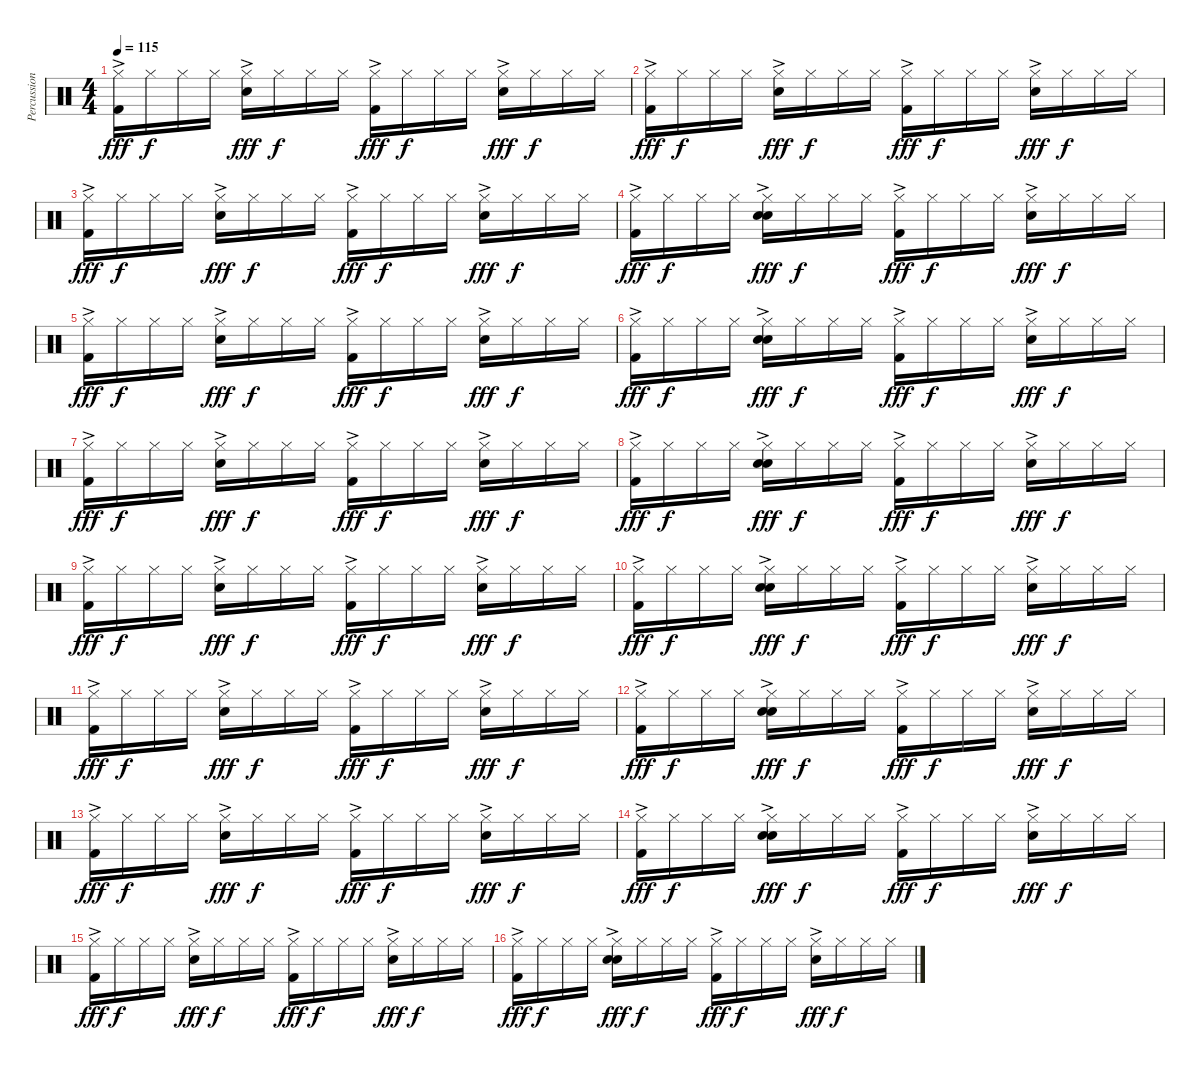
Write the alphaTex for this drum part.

\track ("Percussion" "Percussion") {instrument percussion}
\staff {score}
\articulation defaults
\ts (4 4)
\tempo 115
\clef neutral
\ks c
("Hi-Hat (closed)"{ac} "Kick (hit) 2").16{dy fff} "Hi-Hat (closed)".16{dy f} "Hi-Hat (closed)".16 "Hi-Hat (closed)".16 ("Hi-Hat (closed)"{ac} "Snare (hit) 2").16{dy fff} "Hi-Hat (closed)".16{dy f} "Hi-Hat (closed)".16 "Hi-Hat (closed)".16 ("Hi-Hat (closed)"{ac} "Kick (hit) 2").16{dy fff} "Hi-Hat (closed)".16{dy f} "Hi-Hat (closed)".16 "Hi-Hat (closed)".16 ("Hi-Hat (closed)"{ac} "Snare (hit) 2").16{dy fff} "Hi-Hat (closed)".16{dy f} "Hi-Hat (closed)".16 "Hi-Hat (closed)".16 |
("Hi-Hat (closed)"{ac} "Kick (hit) 2").16{dy fff} "Hi-Hat (closed)".16{dy f} "Hi-Hat (closed)".16 "Hi-Hat (closed)".16 ("Hi-Hat (closed)"{ac} "Snare (hit) 2").16{dy fff} "Hi-Hat (closed)".16{dy f} "Hi-Hat (closed)".16 "Hi-Hat (closed)".16 ("Hi-Hat (closed)"{ac} "Kick (hit) 2").16{dy fff} "Hi-Hat (closed)".16{dy f} "Hi-Hat (closed)".16 "Hi-Hat (closed)".16 ("Hi-Hat (closed)"{ac} "Snare (hit) 2").16{dy fff} "Hi-Hat (closed)".16{dy f} "Hi-Hat (closed)".16 "Hi-Hat (closed)".16 |
("Hi-Hat (closed)"{ac} "Kick (hit) 2").16{dy fff} "Hi-Hat (closed)".16{dy f} "Hi-Hat (closed)".16 "Hi-Hat (closed)".16 ("Hi-Hat (closed)"{ac} "Snare (hit) 2").16{dy fff} "Hi-Hat (closed)".16{dy f} "Hi-Hat (closed)".16 "Hi-Hat (closed)".16 ("Hi-Hat (closed)"{ac} "Kick (hit) 2").16{dy fff} "Hi-Hat (closed)".16{dy f} "Hi-Hat (closed)".16 "Hi-Hat (closed)".16 ("Hi-Hat (closed)"{ac} "Snare (hit) 2").16{dy fff} "Hi-Hat (closed)".16{dy f} "Hi-Hat (closed)".16 "Hi-Hat (closed)".16 |
("Hi-Hat (closed)"{ac} "Kick (hit) 2").16{dy fff} "Hi-Hat (closed)".16{dy f} "Hi-Hat (closed)".16 "Hi-Hat (closed)".16 ("Hi-Hat (closed)"{ac} "Snare (hit) 2" "Hand Clap (hit)").16{dy fff} "Hi-Hat (closed)".16{dy f} "Hi-Hat (closed)".16 "Hi-Hat (closed)".16 ("Hi-Hat (closed)"{ac} "Kick (hit) 2").16{dy fff} "Hi-Hat (closed)".16{dy f} "Hi-Hat (closed)".16 "Hi-Hat (closed)".16 ("Hi-Hat (closed)"{ac} "Snare (hit) 2").16{dy fff} "Hi-Hat (closed)".16{dy f} "Hi-Hat (closed)".16 "Hi-Hat (closed)".16 |
("Hi-Hat (closed)"{ac} "Kick (hit) 2").16{dy fff} "Hi-Hat (closed)".16{dy f} "Hi-Hat (closed)".16 "Hi-Hat (closed)".16 ("Hi-Hat (closed)"{ac} "Snare (hit) 2").16{dy fff} "Hi-Hat (closed)".16{dy f} "Hi-Hat (closed)".16 "Hi-Hat (closed)".16 ("Hi-Hat (closed)"{ac} "Kick (hit) 2").16{dy fff} "Hi-Hat (closed)".16{dy f} "Hi-Hat (closed)".16 "Hi-Hat (closed)".16 ("Hi-Hat (closed)"{ac} "Snare (hit) 2").16{dy fff} "Hi-Hat (closed)".16{dy f} "Hi-Hat (closed)".16 "Hi-Hat (closed)".16 |
("Hi-Hat (closed)"{ac} "Kick (hit) 2").16{dy fff} "Hi-Hat (closed)".16{dy f} "Hi-Hat (closed)".16 "Hi-Hat (closed)".16 ("Hi-Hat (closed)"{ac} "Snare (hit) 2" "Hand Clap (hit)").16{dy fff} "Hi-Hat (closed)".16{dy f} "Hi-Hat (closed)".16 "Hi-Hat (closed)".16 ("Hi-Hat (closed)"{ac} "Kick (hit) 2").16{dy fff} "Hi-Hat (closed)".16{dy f} "Hi-Hat (closed)".16 "Hi-Hat (closed)".16 ("Hi-Hat (closed)"{ac} "Snare (hit) 2").16{dy fff} "Hi-Hat (closed)".16{dy f} "Hi-Hat (closed)".16 "Hi-Hat (closed)".16 |
("Hi-Hat (closed)"{ac} "Kick (hit) 2").16{dy fff} "Hi-Hat (closed)".16{dy f} "Hi-Hat (closed)".16 "Hi-Hat (closed)".16 ("Hi-Hat (closed)"{ac} "Snare (hit) 2").16{dy fff} "Hi-Hat (closed)".16{dy f} "Hi-Hat (closed)".16 "Hi-Hat (closed)".16 ("Hi-Hat (closed)"{ac} "Kick (hit) 2").16{dy fff} "Hi-Hat (closed)".16{dy f} "Hi-Hat (closed)".16 "Hi-Hat (closed)".16 ("Hi-Hat (closed)"{ac} "Snare (hit) 2").16{dy fff} "Hi-Hat (closed)".16{dy f} "Hi-Hat (closed)".16 "Hi-Hat (closed)".16 |
("Hi-Hat (closed)"{ac} "Kick (hit) 2").16{dy fff} "Hi-Hat (closed)".16{dy f} "Hi-Hat (closed)".16 "Hi-Hat (closed)".16 ("Hi-Hat (closed)"{ac} "Snare (hit) 2" "Hand Clap (hit)").16{dy fff} "Hi-Hat (closed)".16{dy f} "Hi-Hat (closed)".16 "Hi-Hat (closed)".16 ("Hi-Hat (closed)"{ac} "Kick (hit) 2").16{dy fff} "Hi-Hat (closed)".16{dy f} "Hi-Hat (closed)".16 "Hi-Hat (closed)".16 ("Hi-Hat (closed)"{ac} "Snare (hit) 2").16{dy fff} "Hi-Hat (closed)".16{dy f} "Hi-Hat (closed)".16 "Hi-Hat (closed)".16 |
("Hi-Hat (closed)"{ac} "Kick (hit) 2").16{dy fff} "Hi-Hat (closed)".16{dy f} "Hi-Hat (closed)".16 "Hi-Hat (closed)".16 ("Hi-Hat (closed)"{ac} "Snare (hit) 2").16{dy fff} "Hi-Hat (closed)".16{dy f} "Hi-Hat (closed)".16 "Hi-Hat (closed)".16 ("Hi-Hat (closed)"{ac} "Kick (hit) 2").16{dy fff} "Hi-Hat (closed)".16{dy f} "Hi-Hat (closed)".16 "Hi-Hat (closed)".16 ("Hi-Hat (closed)"{ac} "Snare (hit) 2").16{dy fff} "Hi-Hat (closed)".16{dy f} "Hi-Hat (closed)".16 "Hi-Hat (closed)".16 |
("Hi-Hat (closed)"{ac} "Kick (hit) 2").16{dy fff} "Hi-Hat (closed)".16{dy f} "Hi-Hat (closed)".16 "Hi-Hat (closed)".16 ("Hi-Hat (closed)"{ac} "Snare (hit) 2" "Hand Clap (hit)").16{dy fff} "Hi-Hat (closed)".16{dy f} "Hi-Hat (closed)".16 "Hi-Hat (closed)".16 ("Hi-Hat (closed)"{ac} "Kick (hit) 2").16{dy fff} "Hi-Hat (closed)".16{dy f} "Hi-Hat (closed)".16 "Hi-Hat (closed)".16 ("Hi-Hat (closed)"{ac} "Snare (hit) 2").16{dy fff} "Hi-Hat (closed)".16{dy f} "Hi-Hat (closed)".16 "Hi-Hat (closed)".16 |
("Hi-Hat (closed)"{ac} "Kick (hit) 2").16{dy fff} "Hi-Hat (closed)".16{dy f} "Hi-Hat (closed)".16 "Hi-Hat (closed)".16 ("Hi-Hat (closed)"{ac} "Snare (hit) 2").16{dy fff} "Hi-Hat (closed)".16{dy f} "Hi-Hat (closed)".16 "Hi-Hat (closed)".16 ("Hi-Hat (closed)"{ac} "Kick (hit) 2").16{dy fff} "Hi-Hat (closed)".16{dy f} "Hi-Hat (closed)".16 "Hi-Hat (closed)".16 ("Hi-Hat (closed)"{ac} "Snare (hit) 2").16{dy fff} "Hi-Hat (closed)".16{dy f} "Hi-Hat (closed)".16 "Hi-Hat (closed)".16 |
("Hi-Hat (closed)"{ac} "Kick (hit) 2").16{dy fff} "Hi-Hat (closed)".16{dy f} "Hi-Hat (closed)".16 "Hi-Hat (closed)".16 ("Hi-Hat (closed)"{ac} "Snare (hit) 2" "Hand Clap (hit)").16{dy fff} "Hi-Hat (closed)".16{dy f} "Hi-Hat (closed)".16 "Hi-Hat (closed)".16 ("Hi-Hat (closed)"{ac} "Kick (hit) 2").16{dy fff} "Hi-Hat (closed)".16{dy f} "Hi-Hat (closed)".16 "Hi-Hat (closed)".16 ("Hi-Hat (closed)"{ac} "Snare (hit) 2").16{dy fff} "Hi-Hat (closed)".16{dy f} "Hi-Hat (closed)".16 "Hi-Hat (closed)".16 |
("Hi-Hat (closed)"{ac} "Kick (hit) 2").16{dy fff} "Hi-Hat (closed)".16{dy f} "Hi-Hat (closed)".16 "Hi-Hat (closed)".16 ("Hi-Hat (closed)"{ac} "Snare (hit) 2").16{dy fff} "Hi-Hat (closed)".16{dy f} "Hi-Hat (closed)".16 "Hi-Hat (closed)".16 ("Hi-Hat (closed)"{ac} "Kick (hit) 2").16{dy fff} "Hi-Hat (closed)".16{dy f} "Hi-Hat (closed)".16 "Hi-Hat (closed)".16 ("Hi-Hat (closed)"{ac} "Snare (hit) 2").16{dy fff} "Hi-Hat (closed)".16{dy f} "Hi-Hat (closed)".16 "Hi-Hat (closed)".16 |
("Hi-Hat (closed)"{ac} "Kick (hit) 2").16{dy fff} "Hi-Hat (closed)".16{dy f} "Hi-Hat (closed)".16 "Hi-Hat (closed)".16 ("Hi-Hat (closed)"{ac} "Snare (hit) 2" "Hand Clap (hit)").16{dy fff} "Hi-Hat (closed)".16{dy f} "Hi-Hat (closed)".16 "Hi-Hat (closed)".16 ("Hi-Hat (closed)"{ac} "Kick (hit) 2").16{dy fff} "Hi-Hat (closed)".16{dy f} "Hi-Hat (closed)".16 "Hi-Hat (closed)".16 ("Hi-Hat (closed)"{ac} "Snare (hit) 2").16{dy fff} "Hi-Hat (closed)".16{dy f} "Hi-Hat (closed)".16 "Hi-Hat (closed)".16 |
("Hi-Hat (closed)"{ac} "Kick (hit) 2").16{dy fff} "Hi-Hat (closed)".16{dy f} "Hi-Hat (closed)".16 "Hi-Hat (closed)".16 ("Hi-Hat (closed)"{ac} "Snare (hit) 2").16{dy fff} "Hi-Hat (closed)".16{dy f} "Hi-Hat (closed)".16 "Hi-Hat (closed)".16 ("Hi-Hat (closed)"{ac} "Kick (hit) 2").16{dy fff} "Hi-Hat (closed)".16{dy f} "Hi-Hat (closed)".16 "Hi-Hat (closed)".16 ("Hi-Hat (closed)"{ac} "Snare (hit) 2").16{dy fff} "Hi-Hat (closed)".16{dy f} "Hi-Hat (closed)".16 "Hi-Hat (closed)".16 |
("Hi-Hat (closed)"{ac} "Kick (hit) 2").16{dy fff} "Hi-Hat (closed)".16{dy f} "Hi-Hat (closed)".16 "Hi-Hat (closed)".16 ("Hi-Hat (closed)"{ac} "Snare (hit) 2" "Hand Clap (hit)").16{dy fff} "Hi-Hat (closed)".16{dy f} "Hi-Hat (closed)".16 "Hi-Hat (closed)".16 ("Hi-Hat (closed)"{ac} "Kick (hit) 2").16{dy fff} "Hi-Hat (closed)".16{dy f} "Hi-Hat (closed)".16 "Hi-Hat (closed)".16 ("Hi-Hat (closed)"{ac} "Snare (hit) 2").16{dy fff} "Hi-Hat (closed)".16{dy f} "Hi-Hat (closed)".16 "Hi-Hat (closed)".16
